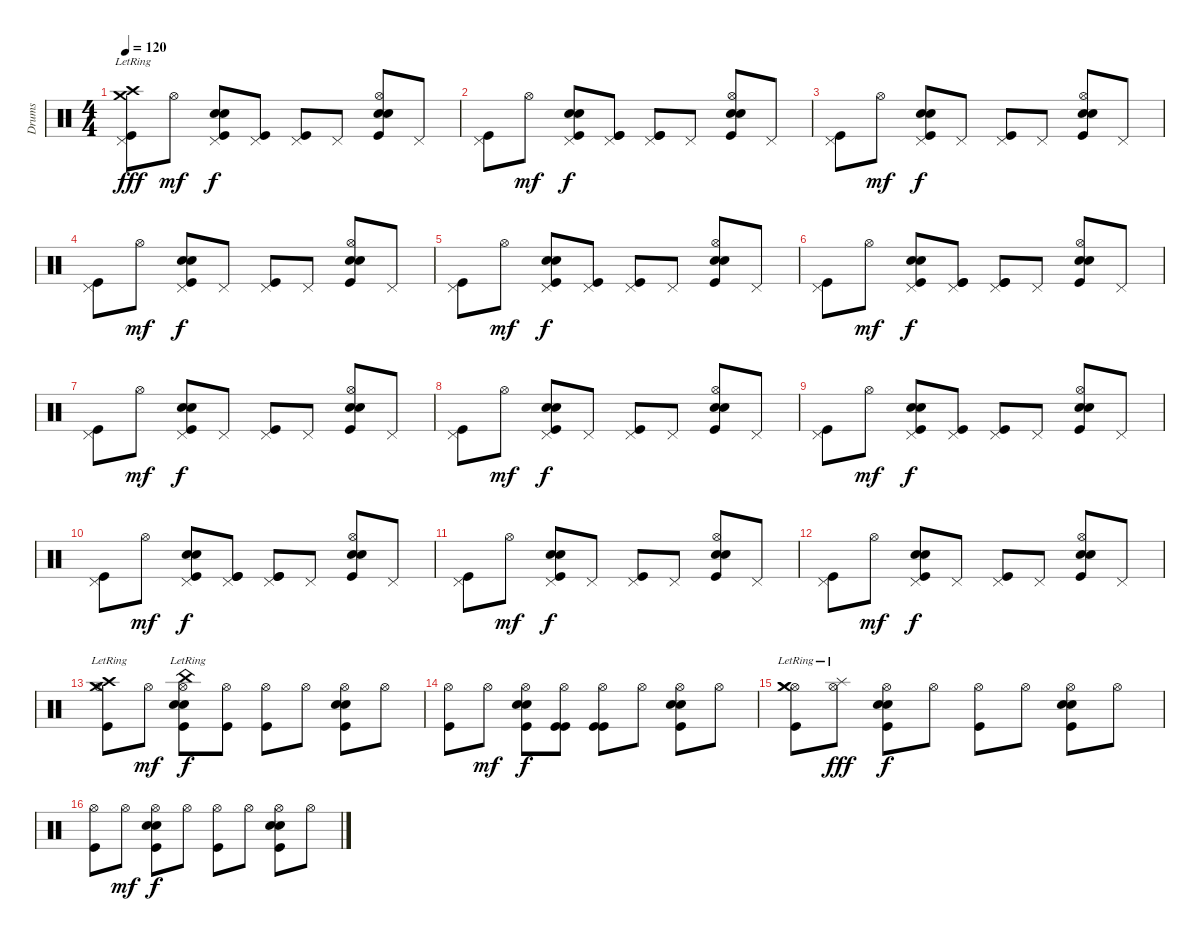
\track ("Drums" "Drums") {instrument percussion}
\staff {score}
\articulation defaults
\ts (4 4)
\tempo 120
\clef neutral
\ks c
("Pedal Hi-Hat (hit)" "Kick (hit)" "Crash high (hit)"{lr} "Crash medium (hit)"{lr}).8{dy fff} "Hi-Hat (open)".8{dy mf} ("Pedal Hi-Hat (hit)" "Kick (hit)" "Electric Snare (hit)" "Snare (hit) 2").8{dy f} ("Pedal Hi-Hat (hit)" "Kick (hit)").8 ("Pedal Hi-Hat (hit)" "Kick (hit)").8 "Pedal Hi-Hat (hit)".8 ("Hi-Hat (open)" "Kick (hit)" "Electric Snare (hit)" "Snare (hit) 2").8 "Pedal Hi-Hat (hit)".8 |
("Pedal Hi-Hat (hit)" "Kick (hit)").8 "Hi-Hat (open)".8{dy mf} ("Pedal Hi-Hat (hit)" "Kick (hit)" "Electric Snare (hit)" "Snare (hit) 2").8{dy f} ("Pedal Hi-Hat (hit)" "Kick (hit)" "Kick (hit)").8 ("Pedal Hi-Hat (hit)" "Kick (hit)" "Kick (hit)").8 "Pedal Hi-Hat (hit)".8 ("Hi-Hat (open)" "Kick (hit)" "Electric Snare (hit)" "Snare (hit) 2").8 "Pedal Hi-Hat (hit)".8 |
("Pedal Hi-Hat (hit)" "Kick (hit)").8 "Hi-Hat (open)".8{dy mf} ("Pedal Hi-Hat (hit)" "Kick (hit)" "Electric Snare (hit)" "Snare (hit) 2").8{dy f} "Pedal Hi-Hat (hit)".8 ("Pedal Hi-Hat (hit)" "Kick (hit)").8 "Pedal Hi-Hat (hit)".8 ("Hi-Hat (open)" "Kick (hit)" "Electric Snare (hit)" "Snare (hit) 2").8 "Pedal Hi-Hat (hit)".8 |
("Pedal Hi-Hat (hit)" "Kick (hit)").8 "Hi-Hat (open)".8{dy mf} ("Pedal Hi-Hat (hit)" "Kick (hit)" "Electric Snare (hit)" "Snare (hit) 2").8{dy f} "Pedal Hi-Hat (hit)".8 ("Pedal Hi-Hat (hit)" "Kick (hit)").8 "Pedal Hi-Hat (hit)".8 ("Hi-Hat (open)" "Kick (hit)" "Electric Snare (hit)" "Snare (hit) 2").8 "Pedal Hi-Hat (hit)".8 |
("Pedal Hi-Hat (hit)" "Kick (hit)").8 "Hi-Hat (open)".8{dy mf} ("Pedal Hi-Hat (hit)" "Kick (hit)" "Electric Snare (hit)" "Snare (hit) 2").8{dy f} ("Pedal Hi-Hat (hit)" "Kick (hit)").8 ("Pedal Hi-Hat (hit)" "Kick (hit)").8 "Pedal Hi-Hat (hit)".8 ("Hi-Hat (open)" "Kick (hit)" "Electric Snare (hit)" "Snare (hit) 2").8 "Pedal Hi-Hat (hit)".8 |
("Pedal Hi-Hat (hit)" "Kick (hit)").8 "Hi-Hat (open)".8{dy mf} ("Pedal Hi-Hat (hit)" "Kick (hit)" "Electric Snare (hit)" "Snare (hit) 2").8{dy f} ("Pedal Hi-Hat (hit)" "Kick (hit)" "Kick (hit)").8 ("Pedal Hi-Hat (hit)" "Kick (hit)" "Kick (hit)").8 "Pedal Hi-Hat (hit)".8 ("Hi-Hat (open)" "Kick (hit)" "Electric Snare (hit)" "Snare (hit) 2").8 "Pedal Hi-Hat (hit)".8 |
("Pedal Hi-Hat (hit)" "Kick (hit)").8 "Hi-Hat (open)".8{dy mf} ("Pedal Hi-Hat (hit)" "Kick (hit)" "Electric Snare (hit)" "Snare (hit) 2").8{dy f} "Pedal Hi-Hat (hit)".8 ("Pedal Hi-Hat (hit)" "Kick (hit)").8 "Pedal Hi-Hat (hit)".8 ("Hi-Hat (open)" "Kick (hit)" "Electric Snare (hit)" "Snare (hit) 2").8 "Pedal Hi-Hat (hit)".8 |
("Pedal Hi-Hat (hit)" "Kick (hit)").8 "Hi-Hat (open)".8{dy mf} ("Pedal Hi-Hat (hit)" "Kick (hit)" "Electric Snare (hit)" "Snare (hit) 2").8{dy f} "Pedal Hi-Hat (hit)".8 ("Pedal Hi-Hat (hit)" "Kick (hit)").8 "Pedal Hi-Hat (hit)".8 ("Hi-Hat (open)" "Kick (hit)" "Electric Snare (hit)" "Snare (hit) 2").8 "Pedal Hi-Hat (hit)".8 |
("Pedal Hi-Hat (hit)" "Kick (hit)").8 "Hi-Hat (open)".8{dy mf} ("Pedal Hi-Hat (hit)" "Kick (hit)" "Electric Snare (hit)" "Snare (hit) 2").8{dy f} ("Pedal Hi-Hat (hit)" "Kick (hit)").8 ("Pedal Hi-Hat (hit)" "Kick (hit)").8 "Pedal Hi-Hat (hit)".8 ("Hi-Hat (open)" "Kick (hit)" "Electric Snare (hit)" "Snare (hit) 2").8 "Pedal Hi-Hat (hit)".8 |
("Pedal Hi-Hat (hit)" "Kick (hit)").8 "Hi-Hat (open)".8{dy mf} ("Pedal Hi-Hat (hit)" "Kick (hit)" "Electric Snare (hit)" "Snare (hit) 2").8{dy f} ("Pedal Hi-Hat (hit)" "Kick (hit)" "Kick (hit)").8 ("Pedal Hi-Hat (hit)" "Kick (hit)" "Kick (hit)").8 "Pedal Hi-Hat (hit)".8 ("Hi-Hat (open)" "Kick (hit)" "Electric Snare (hit)" "Snare (hit) 2").8 "Pedal Hi-Hat (hit)".8 |
("Pedal Hi-Hat (hit)" "Kick (hit)").8 "Hi-Hat (open)".8{dy mf} ("Pedal Hi-Hat (hit)" "Kick (hit)" "Electric Snare (hit)" "Snare (hit) 2").8{dy f} "Pedal Hi-Hat (hit)".8 ("Pedal Hi-Hat (hit)" "Kick (hit)").8 "Pedal Hi-Hat (hit)".8 ("Hi-Hat (open)" "Kick (hit)" "Electric Snare (hit)" "Snare (hit) 2").8 "Pedal Hi-Hat (hit)".8 |
("Pedal Hi-Hat (hit)" "Kick (hit)").8 "Hi-Hat (open)".8{dy mf} ("Pedal Hi-Hat (hit)" "Kick (hit)" "Electric Snare (hit)" "Snare (hit) 2").8{dy f} "Pedal Hi-Hat (hit)".8 ("Pedal Hi-Hat (hit)" "Kick (hit)").8 "Pedal Hi-Hat (hit)".8 ("Hi-Hat (open)" "Kick (hit)" "Electric Snare (hit)" "Snare (hit) 2").8 "Pedal Hi-Hat (hit)".8 |
("Hi-Hat (open)" "Kick (hit)" "Crash high (hit)"{lr} "Crash medium (hit)"{lr}).8 "Hi-Hat (open)".8{dy mf} ("Hi-Hat (open)" "Kick (hit)" "Electric Snare (hit)" "Snare (hit) 2" "China (hit)"{lr}).8{dy f} ("Hi-Hat (open)" "Kick (hit)").8 ("Hi-Hat (open)" "Kick (hit)").8 "Hi-Hat (open)".8 ("Hi-Hat (open)" "Kick (hit)" "Electric Snare (hit)" "Snare (hit) 2").8 "Hi-Hat (open)".8 |
("Hi-Hat (open)" "Kick (hit)").8 "Hi-Hat (open)".8{dy mf} ("Hi-Hat (open)" "Kick (hit)" "Electric Snare (hit)" "Snare (hit) 2").8{dy f} ("Hi-Hat (open)" "Kick (hit)" "Kick (hit)").8 ("Hi-Hat (open)" "Kick (hit)" "Kick (hit)").8 "Hi-Hat (open)".8 ("Hi-Hat (open)" "Kick (hit)" "Electric Snare (hit)" "Snare (hit) 2").8 "Hi-Hat (open)".8 |
("Hi-Hat (open)" "Kick (hit)" "Crash medium (hit)"{lr} "Crash medium (hit)"{lr}).8 ("Hi-Hat (open)" "Splash (hit)"{lr}).8{dy fff} ("Hi-Hat (open)" "Kick (hit)" "Electric Snare (hit)" "Snare (hit) 2").8{dy f} "Hi-Hat (open)".8 ("Hi-Hat (open)" "Kick (hit)").8 "Hi-Hat (open)".8 ("Hi-Hat (open)" "Kick (hit)" "Electric Snare (hit)" "Snare (hit) 2").8 "Hi-Hat (open)".8 |
("Hi-Hat (open)" "Kick (hit)").8 "Hi-Hat (open)".8{dy mf} ("Hi-Hat (open)" "Kick (hit)" "Electric Snare (hit)" "Snare (hit) 2").8{dy f} "Hi-Hat (open)".8 ("Hi-Hat (open)" "Kick (hit)").8 "Hi-Hat (open)".8 ("Hi-Hat (open)" "Kick (hit)" "Electric Snare (hit)" "Snare (hit) 2").8 "Hi-Hat (open)".8
